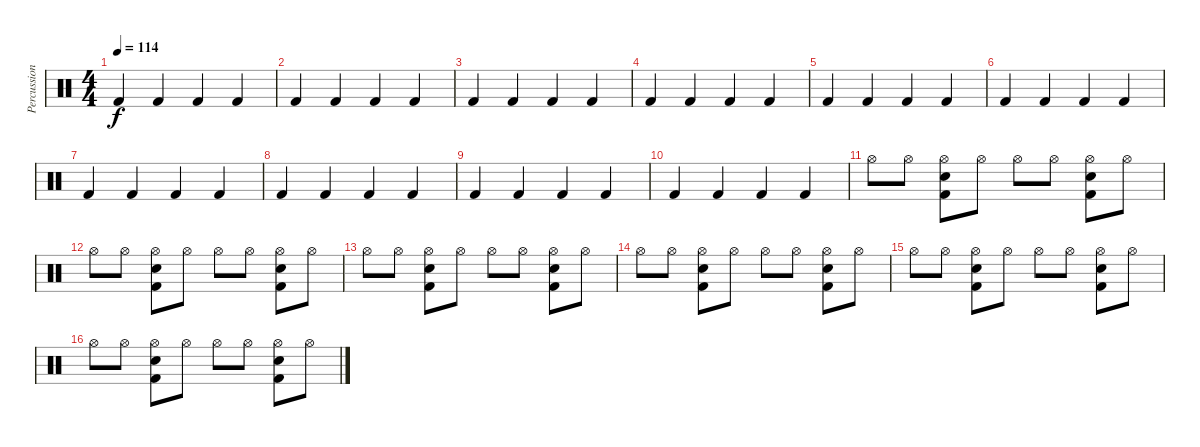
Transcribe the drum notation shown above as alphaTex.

\track ("Percussion" "Percussion") {instrument percussion}
\staff {score}
\articulation defaults
\ts (4 4)
\tempo 114
\clef neutral
\ks c "Kick (hit) 2".4{dy f} "Kick (hit) 2".4 "Kick (hit) 2".4 "Kick (hit) 2".4
|
"Kick (hit) 2".4 "Kick (hit) 2".4 "Kick (hit) 2".4 "Kick (hit) 2".4 |
"Kick (hit) 2".4 "Kick (hit) 2".4 "Kick (hit) 2".4 "Kick (hit) 2".4 |
"Kick (hit) 2".4 "Kick (hit) 2".4 "Kick (hit) 2".4 "Kick (hit) 2".4 |
"Kick (hit) 2".4 "Kick (hit) 2".4 "Kick (hit) 2".4 "Kick (hit) 2".4 |
"Kick (hit) 2".4 "Kick (hit) 2".4 "Kick (hit) 2".4 "Kick (hit) 2".4 |
"Kick (hit) 2".4 "Kick (hit) 2".4 "Kick (hit) 2".4 "Kick (hit) 2".4 |
"Kick (hit) 2".4 "Kick (hit) 2".4 "Kick (hit) 2".4 "Kick (hit) 2".4 |
"Kick (hit) 2".4 "Kick (hit) 2".4 "Kick (hit) 2".4 "Kick (hit) 2".4 |
"Kick (hit) 2".4 "Kick (hit) 2".4 "Kick (hit) 2".4 "Kick (hit) 2".4 |
"Hi-Hat (open)".8 "Hi-Hat (open)".8 ("Hi-Hat (open)" "Snare (hit) 2" "Kick (hit) 2").8 "Hi-Hat (open)".8 "Hi-Hat (open)".8 "Hi-Hat (open)".8 ("Hi-Hat (open)" "Snare (hit) 2" "Kick (hit) 2").8 "Hi-Hat (open)".8 |
"Hi-Hat (open)".8 "Hi-Hat (open)".8 ("Hi-Hat (open)" "Snare (hit) 2" "Kick (hit) 2").8 "Hi-Hat (open)".8 "Hi-Hat (open)".8 "Hi-Hat (open)".8 ("Hi-Hat (open)" "Snare (hit) 2" "Kick (hit) 2").8 "Hi-Hat (open)".8 |
"Hi-Hat (open)".8 "Hi-Hat (open)".8 ("Hi-Hat (open)" "Snare (hit) 2" "Kick (hit) 2").8 "Hi-Hat (open)".8 "Hi-Hat (open)".8 "Hi-Hat (open)".8 ("Hi-Hat (open)" "Snare (hit) 2" "Kick (hit) 2").8 "Hi-Hat (open)".8 |
"Hi-Hat (open)".8 "Hi-Hat (open)".8 ("Hi-Hat (open)" "Snare (hit) 2" "Kick (hit) 2").8 "Hi-Hat (open)".8 "Hi-Hat (open)".8 "Hi-Hat (open)".8 ("Hi-Hat (open)" "Snare (hit) 2" "Kick (hit) 2").8 "Hi-Hat (open)".8 |
"Hi-Hat (open)".8 "Hi-Hat (open)".8 ("Hi-Hat (open)" "Snare (hit) 2" "Kick (hit) 2").8 "Hi-Hat (open)".8 "Hi-Hat (open)".8 "Hi-Hat (open)".8 ("Hi-Hat (open)" "Snare (hit) 2" "Kick (hit) 2").8 "Hi-Hat (open)".8 |
"Hi-Hat (open)".8 "Hi-Hat (open)".8 ("Hi-Hat (open)" "Snare (hit) 2" "Kick (hit) 2").8 "Hi-Hat (open)".8 "Hi-Hat (open)".8 "Hi-Hat (open)".8 ("Hi-Hat (open)" "Snare (hit) 2" "Kick (hit) 2").8 "Hi-Hat (open)".8
